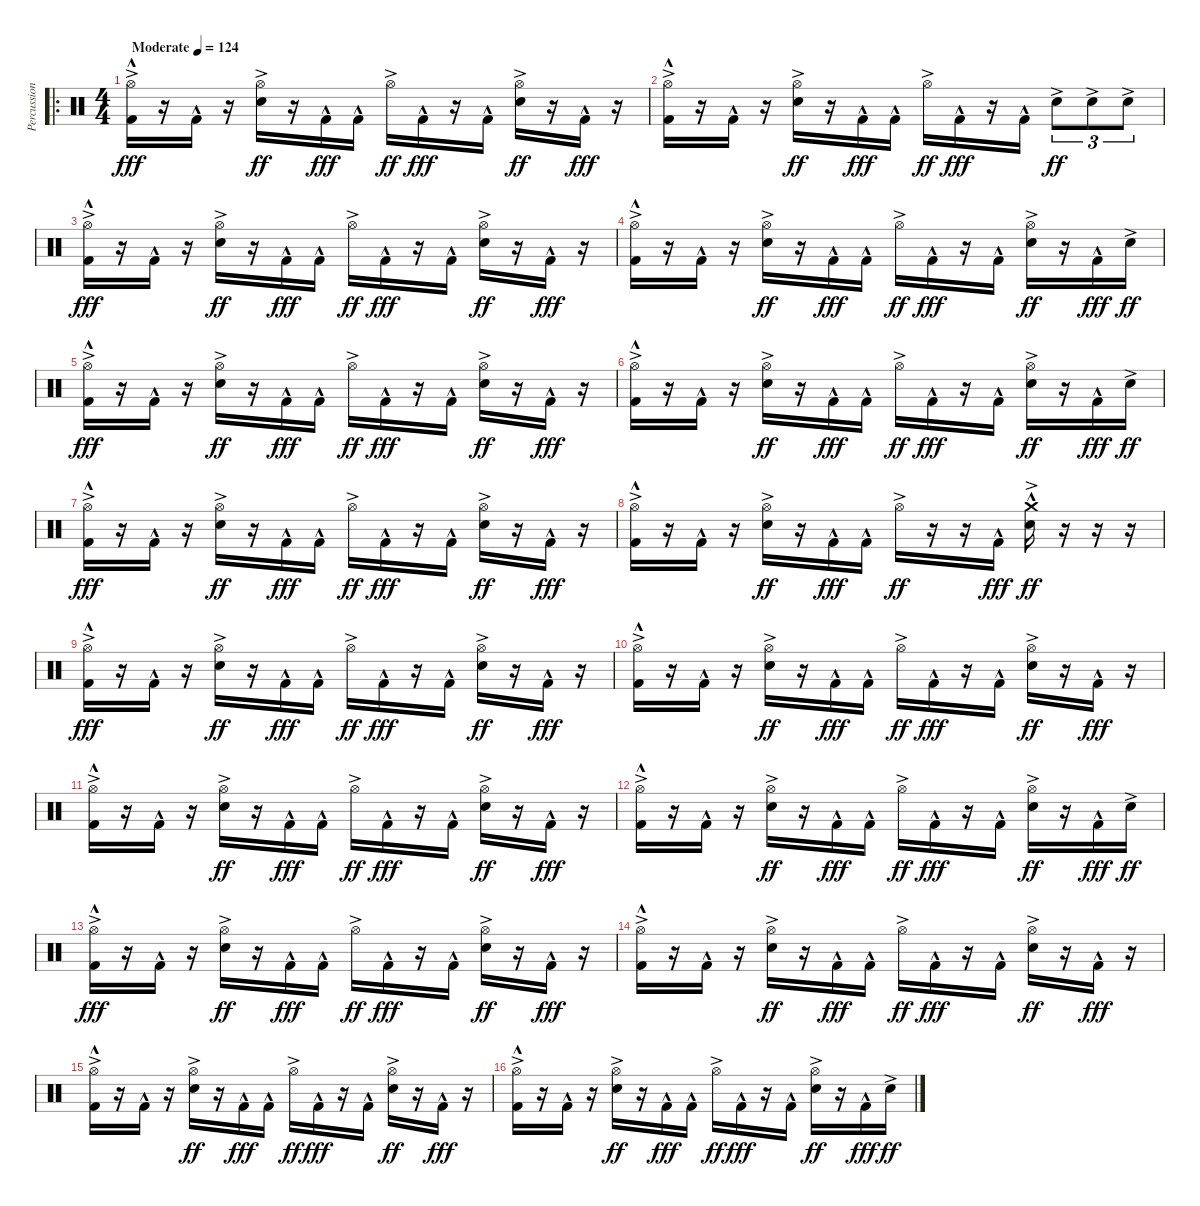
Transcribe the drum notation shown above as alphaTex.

\track ("Percussion" "Percussion") {instrument percussion}
\staff {score}
\articulation defaults
\ro
\ts (4 4)
\tempo (124 "Moderate")
\clef neutral
\ks c
("Hi-Hat (open)"{ac} "Kick (hit) 2"{hac}).16{dy fff} r.16 "Kick (hit) 2"{hac}.16 r.16 ("Hi-Hat (open)"{ac} "Snare (hit) 2"{ac}).16{dy ff} r.16 "Kick (hit) 2"{hac}.16{dy fff} "Kick (hit) 2"{hac}.16 "Hi-Hat (open)"{ac}.16{dy ff} "Kick (hit) 2"{hac}.16{dy fff} r.16 "Kick (hit) 2"{hac}.16 ("Hi-Hat (open)"{ac} "Snare (hit) 2"{ac}).16{dy ff} r.16 "Kick (hit) 2"{hac}.16{dy fff} r.16 |
("Hi-Hat (open)"{ac} "Kick (hit) 2"{hac}).16 r.16 "Kick (hit) 2"{hac}.16 r.16 ("Hi-Hat (open)"{ac} "Snare (hit) 2"{ac}).16{dy ff} r.16 "Kick (hit) 2"{hac}.16{dy fff} "Kick (hit) 2"{hac}.16 "Hi-Hat (open)"{ac}.16{dy ff} "Kick (hit) 2"{hac}.16{dy fff} r.16 "Kick (hit) 2"{hac}.16 "Snare (hit) 2"{ac}.8{tu (3 2) dy ff} "Snare (hit) 2"{ac}.8{tu (3 2)} "Snare (hit) 2"{ac}.8{tu (3 2)} |
("Hi-Hat (open)"{ac} "Kick (hit) 2"{hac}).16{dy fff} r.16 "Kick (hit) 2"{hac}.16 r.16 ("Hi-Hat (open)"{ac} "Snare (hit) 2"{ac}).16{dy ff} r.16 "Kick (hit) 2"{hac}.16{dy fff} "Kick (hit) 2"{hac}.16 "Hi-Hat (open)"{ac}.16{dy ff} "Kick (hit) 2"{hac}.16{dy fff} r.16 "Kick (hit) 2"{hac}.16 ("Hi-Hat (open)"{ac} "Snare (hit) 2"{ac}).16{dy ff} r.16 "Kick (hit) 2"{hac}.16{dy fff} r.16 |
("Hi-Hat (open)"{ac} "Kick (hit) 2"{hac}).16 r.16 "Kick (hit) 2"{hac}.16 r.16 ("Hi-Hat (open)"{ac} "Snare (hit) 2"{ac}).16{dy ff} r.16 "Kick (hit) 2"{hac}.16{dy fff} "Kick (hit) 2"{hac}.16 "Hi-Hat (open)"{ac}.16{dy ff} "Kick (hit) 2"{hac}.16{dy fff} r.16 "Kick (hit) 2"{hac}.16 ("Hi-Hat (open)"{ac} "Snare (hit) 2"{ac}).16{dy ff} r.16 "Kick (hit) 2"{hac}.16{dy fff} "Snare (hit) 2"{ac}.16{dy ff} |
("Hi-Hat (open)"{ac} "Kick (hit) 2"{hac}).16{dy fff} r.16 "Kick (hit) 2"{hac}.16 r.16 ("Hi-Hat (open)"{ac} "Snare (hit) 2"{ac}).16{dy ff} r.16 "Kick (hit) 2"{hac}.16{dy fff} "Kick (hit) 2"{hac}.16 "Hi-Hat (open)"{ac}.16{dy ff} "Kick (hit) 2"{hac}.16{dy fff} r.16 "Kick (hit) 2"{hac}.16 ("Hi-Hat (open)"{ac} "Snare (hit) 2"{ac}).16{dy ff} r.16 "Kick (hit) 2"{hac}.16{dy fff} r.16 |
("Hi-Hat (open)"{ac} "Kick (hit) 2"{hac}).16 r.16 "Kick (hit) 2"{hac}.16 r.16 ("Hi-Hat (open)"{ac} "Snare (hit) 2"{ac}).16{dy ff} r.16 "Kick (hit) 2"{hac}.16{dy fff} "Kick (hit) 2"{hac}.16 "Hi-Hat (open)"{ac}.16{dy ff} "Kick (hit) 2"{hac}.16{dy fff} r.16 "Kick (hit) 2"{hac}.16 ("Hi-Hat (open)"{ac} "Snare (hit) 2"{ac}).16{dy ff} r.16 "Kick (hit) 2"{hac}.16{dy fff} "Snare (hit) 2"{ac}.16{dy ff} |
("Hi-Hat (open)"{ac} "Kick (hit) 2"{hac}).16{dy fff} r.16 "Kick (hit) 2"{hac}.16 r.16 ("Hi-Hat (open)"{ac} "Snare (hit) 2"{ac}).16{dy ff} r.16 "Kick (hit) 2"{hac}.16{dy fff} "Kick (hit) 2"{hac}.16 "Hi-Hat (open)"{ac}.16{dy ff} "Kick (hit) 2"{hac}.16{dy fff} r.16 "Kick (hit) 2"{hac}.16 ("Hi-Hat (open)"{ac} "Snare (hit) 2"{ac}).16{dy ff} r.16 "Kick (hit) 2"{hac}.16{dy fff} r.16 |
("Hi-Hat (open)"{ac} "Kick (hit) 2"{hac}).16 r.16 "Kick (hit) 2"{hac}.16 r.16 ("Hi-Hat (open)"{ac} "Snare (hit) 2"{ac}).16{dy ff} r.16 "Kick (hit) 2"{hac}.16{dy fff} "Kick (hit) 2"{hac}.16 "Hi-Hat (open)"{ac}.16{dy ff} r.16 r.16 "Kick (hit) 2"{hac}.16{dy fff} ("Crash medium (hit)"{hac} "Snare (hit) 2"{ac}).16{dy ff} r.16 r.16 r.16 |
("Hi-Hat (open)"{ac} "Kick (hit) 2"{hac}).16{dy fff} r.16 "Kick (hit) 2"{hac}.16 r.16 ("Hi-Hat (open)"{ac} "Snare (hit) 2"{ac}).16{dy ff} r.16 "Kick (hit) 2"{hac}.16{dy fff} "Kick (hit) 2"{hac}.16 "Hi-Hat (open)"{ac}.16{dy ff} "Kick (hit) 2"{hac}.16{dy fff} r.16 "Kick (hit) 2"{hac}.16 ("Hi-Hat (open)"{ac} "Snare (hit) 2"{ac}).16{dy ff} r.16 "Kick (hit) 2"{hac}.16{dy fff} r.16 |
("Hi-Hat (open)"{ac} "Kick (hit) 2"{hac}).16 r.16 "Kick (hit) 2"{hac}.16 r.16 ("Hi-Hat (open)"{ac} "Snare (hit) 2"{ac}).16{dy ff} r.16 "Kick (hit) 2"{hac}.16{dy fff} "Kick (hit) 2"{hac}.16 "Hi-Hat (open)"{ac}.16{dy ff} "Kick (hit) 2"{hac}.16{dy fff} r.16 "Kick (hit) 2"{hac}.16 ("Hi-Hat (open)"{ac} "Snare (hit) 2"{ac}).16{dy ff} r.16 "Kick (hit) 2"{hac}.16{dy fff} r.16 |
("Hi-Hat (open)"{ac} "Kick (hit) 2"{hac}).16 r.16 "Kick (hit) 2"{hac}.16 r.16 ("Hi-Hat (open)"{ac} "Snare (hit) 2"{ac}).16{dy ff} r.16 "Kick (hit) 2"{hac}.16{dy fff} "Kick (hit) 2"{hac}.16 "Hi-Hat (open)"{ac}.16{dy ff} "Kick (hit) 2"{hac}.16{dy fff} r.16 "Kick (hit) 2"{hac}.16 ("Hi-Hat (open)"{ac} "Snare (hit) 2"{ac}).16{dy ff} r.16 "Kick (hit) 2"{hac}.16{dy fff} r.16 |
("Hi-Hat (open)"{ac} "Kick (hit) 2"{hac}).16 r.16 "Kick (hit) 2"{hac}.16 r.16 ("Hi-Hat (open)"{ac} "Snare (hit) 2"{ac}).16{dy ff} r.16 "Kick (hit) 2"{hac}.16{dy fff} "Kick (hit) 2"{hac}.16 "Hi-Hat (open)"{ac}.16{dy ff} "Kick (hit) 2"{hac}.16{dy fff} r.16 "Kick (hit) 2"{hac}.16 ("Hi-Hat (open)"{ac} "Snare (hit) 2"{ac}).16{dy ff} r.16 "Kick (hit) 2"{hac}.16{dy fff} "Snare (hit) 2"{ac}.16{dy ff} |
("Hi-Hat (open)"{ac} "Kick (hit) 2"{hac}).16{dy fff} r.16 "Kick (hit) 2"{hac}.16 r.16 ("Hi-Hat (open)"{ac} "Snare (hit) 2"{ac}).16{dy ff} r.16 "Kick (hit) 2"{hac}.16{dy fff} "Kick (hit) 2"{hac}.16 "Hi-Hat (open)"{ac}.16{dy ff} "Kick (hit) 2"{hac}.16{dy fff} r.16 "Kick (hit) 2"{hac}.16 ("Hi-Hat (open)"{ac} "Snare (hit) 2"{ac}).16{dy ff} r.16 "Kick (hit) 2"{hac}.16{dy fff} r.16 |
("Hi-Hat (open)"{ac} "Kick (hit) 2"{hac}).16 r.16 "Kick (hit) 2"{hac}.16 r.16 ("Hi-Hat (open)"{ac} "Snare (hit) 2"{ac}).16{dy ff} r.16 "Kick (hit) 2"{hac}.16{dy fff} "Kick (hit) 2"{hac}.16 "Hi-Hat (open)"{ac}.16{dy ff} "Kick (hit) 2"{hac}.16{dy fff} r.16 "Kick (hit) 2"{hac}.16 ("Hi-Hat (open)"{ac} "Snare (hit) 2"{ac}).16{dy ff} r.16 "Kick (hit) 2"{hac}.16{dy fff} r.16 |
("Hi-Hat (open)"{ac} "Kick (hit) 2"{hac}).16 r.16 "Kick (hit) 2"{hac}.16 r.16 ("Hi-Hat (open)"{ac} "Snare (hit) 2"{ac}).16{dy ff} r.16 "Kick (hit) 2"{hac}.16{dy fff} "Kick (hit) 2"{hac}.16 "Hi-Hat (open)"{ac}.16{dy ff} "Kick (hit) 2"{hac}.16{dy fff} r.16 "Kick (hit) 2"{hac}.16 ("Hi-Hat (open)"{ac} "Snare (hit) 2"{ac}).16{dy ff} r.16 "Kick (hit) 2"{hac}.16{dy fff} r.16 |
("Hi-Hat (open)"{ac} "Kick (hit) 2"{hac}).16 r.16 "Kick (hit) 2"{hac}.16 r.16 ("Hi-Hat (open)"{ac} "Snare (hit) 2"{ac}).16{dy ff} r.16 "Kick (hit) 2"{hac}.16{dy fff} "Kick (hit) 2"{hac}.16 "Hi-Hat (open)"{ac}.16{dy ff} "Kick (hit) 2"{hac}.16{dy fff} r.16 "Kick (hit) 2"{hac}.16 ("Hi-Hat (open)"{ac} "Snare (hit) 2"{ac}).16{dy ff} r.16 "Kick (hit) 2"{hac}.16{dy fff} "Snare (hit) 2"{ac}.16{dy ff}
